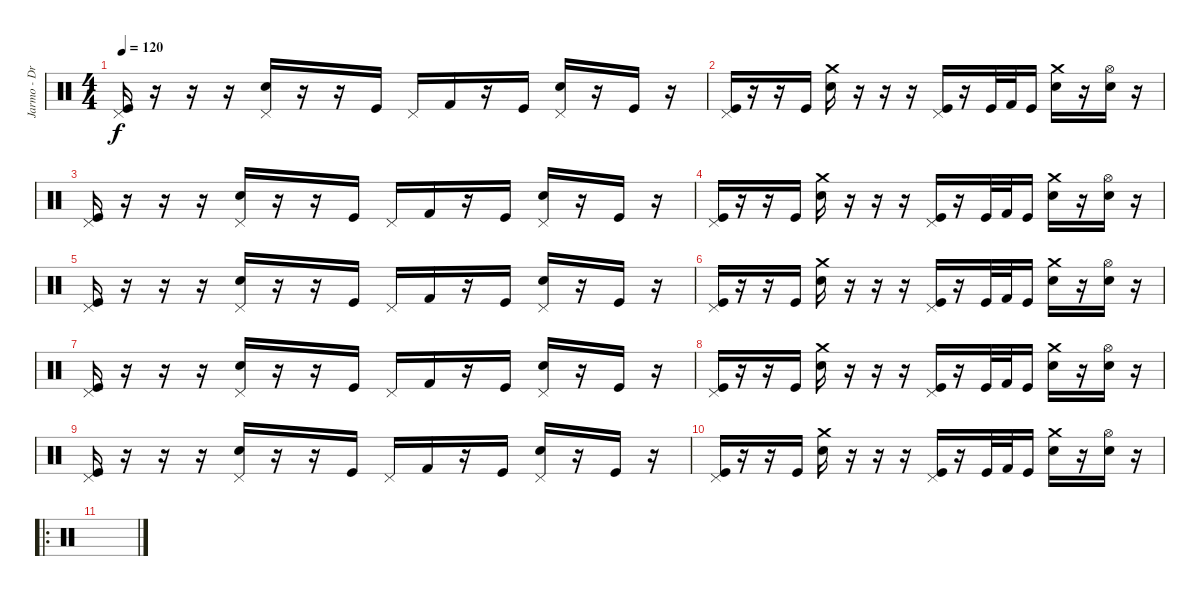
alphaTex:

\track ("Jarmo - Drums" "Jarmo - Dr") {instrument percussion}
\staff {score}
\articulation defaults
\ts (4 4)
\tempo 120
\clef neutral
\ks c
("Kick (hit)" "Pedal Hi-Hat (hit)").16{dy f} r.16 r.16 r.16 ("Electric Snare (hit)" "Pedal Hi-Hat (hit)").16 r.16 r.16 "Kick (hit)".16 "Pedal Hi-Hat (hit)".16 "Kick (hit) 2".16 r.16 "Kick (hit)".16 ("Electric Snare (hit)" "Pedal Hi-Hat (hit)").16 r.16 "Kick (hit)".16 r.16 |
("Kick (hit)" "Pedal Hi-Hat (hit)").16 r.16 r.16 "Kick (hit)".16 ("Electric Snare (hit)" "Crash medium (hit)").16 r.16 r.16 r.16 ("Kick (hit)" "Pedal Hi-Hat (hit)").16 r.16 "Kick (hit)".32 "Kick (hit) 2".32 "Kick (hit)".16 ("Electric Snare (hit)" "Crash medium (hit)").16 r.16 ("Electric Snare (hit)" "Hi-Hat (open)").16 r.16 |
("Kick (hit)" "Pedal Hi-Hat (hit)").16 r.16 r.16 r.16 ("Electric Snare (hit)" "Pedal Hi-Hat (hit)").16 r.16 r.16 "Kick (hit)".16 "Pedal Hi-Hat (hit)".16 "Kick (hit) 2".16 r.16 "Kick (hit)".16 ("Electric Snare (hit)" "Pedal Hi-Hat (hit)").16 r.16 "Kick (hit)".16 r.16 |
("Kick (hit)" "Pedal Hi-Hat (hit)").16 r.16 r.16 "Kick (hit)".16 ("Electric Snare (hit)" "Crash medium (hit)").16 r.16 r.16 r.16 ("Kick (hit)" "Pedal Hi-Hat (hit)").16 r.16 "Kick (hit)".32 "Kick (hit) 2".32 "Kick (hit)".16 ("Electric Snare (hit)" "Crash medium (hit)").16 r.16 ("Electric Snare (hit)" "Hi-Hat (open)").16 r.16 |
("Kick (hit)" "Pedal Hi-Hat (hit)").16 r.16 r.16 r.16 ("Electric Snare (hit)" "Pedal Hi-Hat (hit)").16 r.16 r.16 "Kick (hit)".16 "Pedal Hi-Hat (hit)".16 "Kick (hit) 2".16 r.16 "Kick (hit)".16 ("Electric Snare (hit)" "Pedal Hi-Hat (hit)").16 r.16 "Kick (hit)".16 r.16 |
("Kick (hit)" "Pedal Hi-Hat (hit)").16 r.16 r.16 "Kick (hit)".16 ("Electric Snare (hit)" "Crash medium (hit)").16 r.16 r.16 r.16 ("Kick (hit)" "Pedal Hi-Hat (hit)").16 r.16 "Kick (hit)".32 "Kick (hit) 2".32 "Kick (hit)".16 ("Electric Snare (hit)" "Crash medium (hit)").16 r.16 ("Electric Snare (hit)" "Hi-Hat (open)").16 r.16 |
("Kick (hit)" "Pedal Hi-Hat (hit)").16 r.16 r.16 r.16 ("Electric Snare (hit)" "Pedal Hi-Hat (hit)").16 r.16 r.16 "Kick (hit)".16 "Pedal Hi-Hat (hit)".16 "Kick (hit) 2".16 r.16 "Kick (hit)".16 ("Electric Snare (hit)" "Pedal Hi-Hat (hit)").16 r.16 "Kick (hit)".16 r.16 |
("Kick (hit)" "Pedal Hi-Hat (hit)").16 r.16 r.16 "Kick (hit)".16 ("Electric Snare (hit)" "Crash medium (hit)").16 r.16 r.16 r.16 ("Kick (hit)" "Pedal Hi-Hat (hit)").16 r.16 "Kick (hit)".32 "Kick (hit) 2".32 "Kick (hit)".16 ("Electric Snare (hit)" "Crash medium (hit)").16 r.16 ("Electric Snare (hit)" "Hi-Hat (open)").16 r.16 |
("Kick (hit)" "Pedal Hi-Hat (hit)").16 r.16 r.16 r.16 ("Electric Snare (hit)" "Pedal Hi-Hat (hit)").16 r.16 r.16 "Kick (hit)".16 "Pedal Hi-Hat (hit)".16 "Kick (hit) 2".16 r.16 "Kick (hit)".16 ("Electric Snare (hit)" "Pedal Hi-Hat (hit)").16 r.16 "Kick (hit)".16 r.16 |
("Kick (hit)" "Pedal Hi-Hat (hit)").16 r.16 r.16 "Kick (hit)".16 ("Electric Snare (hit)" "Crash medium (hit)").16 r.16 r.16 r.16 ("Kick (hit)" "Pedal Hi-Hat (hit)").16 r.16 "Kick (hit)".32 "Kick (hit) 2".32 "Kick (hit)".16 ("Electric Snare (hit)" "Crash medium (hit)").16 r.16 ("Electric Snare (hit)" "Hi-Hat (open)").16 r.16 |
\ro
